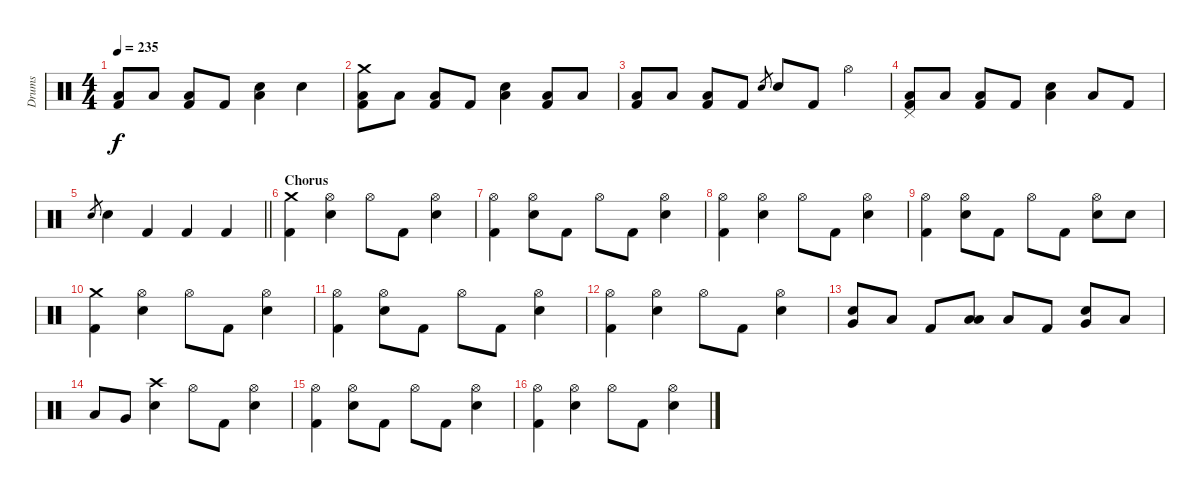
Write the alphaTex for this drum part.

\track ("Drums" "Drums") {instrument percussion}
\staff {score}
\articulation defaults
\ts (4 4)
\tempo 235
\clef neutral
\ks c
("Low Floor Tom (hit)" "Kick (hit) 2").8{dy f} "Low Tom (hit)".8 ("Low Floor Tom (hit)" "Kick (hit) 2").8 "Kick (hit) 2".8 ("Electric Snare (hit)" "Low Floor Tom (hit)").4 "Electric Snare (hit)".4 |
("Crash medium (hit)" "Low Floor Tom (hit)" "Kick (hit) 2").8 "Low Tom (hit)".8 ("Low Floor Tom (hit)" "Kick (hit) 2").8 "Kick (hit) 2".8 ("Electric Snare (hit)" "Low Floor Tom (hit)").4 ("Low Floor Tom (hit)" "Kick (hit) 2").8 "Low Tom (hit)".8 |
("Low Floor Tom (hit)" "Kick (hit) 2").8 "Low Tom (hit)".8 ("Low Floor Tom (hit)" "Kick (hit) 2").8 "Kick (hit) 2".8 "Electric Snare (hit)".8{gr} "Electric Snare (hit)".8 "Kick (hit) 2".8 "Hi-Hat (open)".4 |
("Pedal Hi-Hat (hit)" "Low Floor Tom (hit)" "Kick (hit) 2").8 "Low Tom (hit)".8 ("Low Floor Tom (hit)" "Kick (hit) 2").8 "Kick (hit) 2".8 ("Electric Snare (hit)" "Low Floor Tom (hit)").4 "Low Floor Tom (hit)".8 "Kick (hit) 2".8 |
\barLineRight lightlight "Electric Snare (hit)".8{gr} "Electric Snare (hit)".4 "Kick (hit) 2".4 "Kick (hit) 2".4 "Kick (hit) 2".4
|
\section ("" "Chorus")
("Crash medium (hit)" "Kick (hit) 2").4 ("Hi-Hat (open)" "Electric Snare (hit)").4 "Hi-Hat (open)".8 "Kick (hit) 2".8 ("Hi-Hat (open)" "Electric Snare (hit)").4 |
("Hi-Hat (open)" "Kick (hit) 2").4 ("Hi-Hat (open)" "Electric Snare (hit)").8 "Kick (hit) 2".8 "Hi-Hat (open)".8 "Kick (hit) 2".8 ("Hi-Hat (open)" "Electric Snare (hit)").4 |
("Hi-Hat (open)" "Kick (hit) 2").4 ("Hi-Hat (open)" "Electric Snare (hit)").4 "Hi-Hat (open)".8 "Kick (hit) 2".8 ("Hi-Hat (open)" "Electric Snare (hit)").4 |
("Hi-Hat (open)" "Kick (hit) 2").4 ("Hi-Hat (open)" "Electric Snare (hit)").8 "Kick (hit) 2".8 "Hi-Hat (open)".8 "Kick (hit) 2".8 ("Hi-Hat (open)" "Electric Snare (hit)").8 "Electric Snare (hit)".8 |
("Crash medium (hit)" "Kick (hit) 2").4 ("Hi-Hat (open)" "Electric Snare (hit)").4 "Hi-Hat (open)".8 "Kick (hit) 2".8 ("Hi-Hat (open)" "Electric Snare (hit)").4 |
("Hi-Hat (open)" "Kick (hit) 2").4 ("Hi-Hat (open)" "Electric Snare (hit)").8 "Kick (hit) 2".8 "Hi-Hat (open)".8 "Kick (hit) 2".8 ("Hi-Hat (open)" "Electric Snare (hit)").4 |
("Hi-Hat (open)" "Kick (hit) 2").4 ("Hi-Hat (open)" "Electric Snare (hit)").4 "Hi-Hat (open)".8 "Kick (hit) 2".8 ("Hi-Hat (open)" "Electric Snare (hit)").4 |
("Electric Snare (hit)" "Very Low Tom (hit)").8 "Low Floor Tom (hit)".8 "Kick (hit) 2".8 ("Low Tom (hit)" "Low Floor Tom (hit)").8 "Low Floor Tom (hit)".8 "Kick (hit) 2".8 ("Electric Snare (hit)" "Very Low Tom (hit)").8 "Low Floor Tom (hit)".8 |
"Low Tom (hit)".8 "Very Low Tom (hit)".8 ("Crash high (hit)" "Electric Snare (hit)").4 "Hi-Hat (open)".8 "Kick (hit) 2".8 ("Hi-Hat (open)" "Electric Snare (hit)").4 |
("Hi-Hat (open)" "Kick (hit) 2").4 ("Hi-Hat (open)" "Electric Snare (hit)").8 "Kick (hit) 2".8 "Hi-Hat (open)".8 "Kick (hit) 2".8 ("Hi-Hat (open)" "Electric Snare (hit)").4 |
("Hi-Hat (open)" "Kick (hit) 2").4 ("Hi-Hat (open)" "Electric Snare (hit)").4 "Hi-Hat (open)".8 "Kick (hit) 2".8 ("Hi-Hat (open)" "Electric Snare (hit)").4
